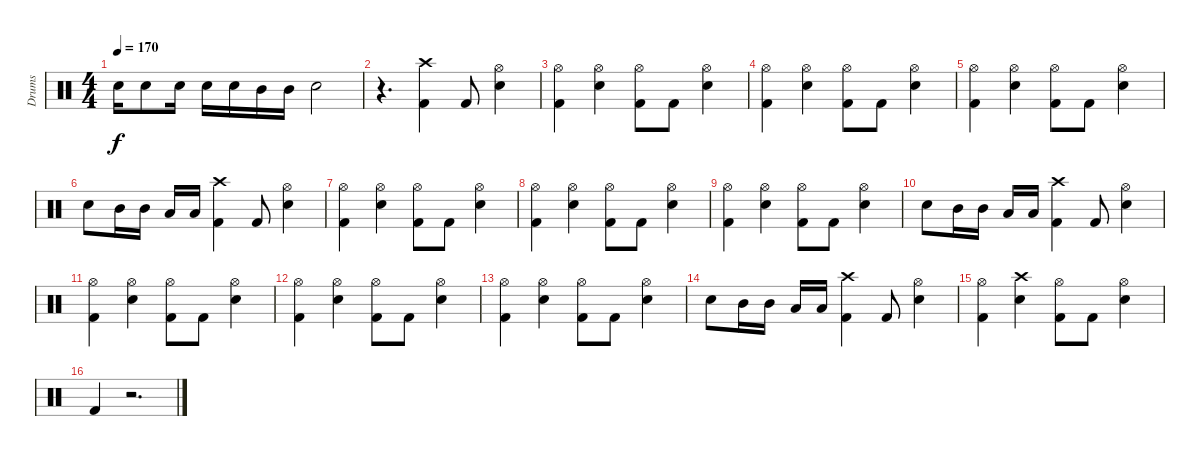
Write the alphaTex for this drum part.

\track ("Drums" "Drums") {instrument percussion}
\staff {score}
\articulation defaults
\ts (4 4)
\tempo 170
\clef neutral
\ks c "Snare (hit) 2".16{dy f} "Snare (hit) 2".8 "Snare (hit) 2".16 "Snare (hit) 2".16 "Snare (hit) 2".16 "Mid Tom (hit)".16 "Mid Tom (hit)".16 "Snare (hit) 2".2
|
r.4{d} ("Crash high (hit)" "Kick (hit) 2").4 "Kick (hit) 2".8 ("Hi-Hat (open)" "Snare (hit) 2").4 |
("Hi-Hat (open)" "Kick (hit) 2").4 ("Hi-Hat (open)" "Snare (hit) 2").4 ("Hi-Hat (open)" "Kick (hit) 2").8 "Kick (hit) 2".8 ("Hi-Hat (open)" "Snare (hit) 2").4 |
("Hi-Hat (open)" "Kick (hit) 2").4 ("Hi-Hat (open)" "Snare (hit) 2").4 ("Hi-Hat (open)" "Kick (hit) 2").8 "Kick (hit) 2".8 ("Hi-Hat (open)" "Snare (hit) 2").4 |
("Hi-Hat (open)" "Kick (hit) 2").4 ("Hi-Hat (open)" "Snare (hit) 2").4 ("Hi-Hat (open)" "Kick (hit) 2").8 "Kick (hit) 2".8 ("Hi-Hat (open)" "Snare (hit) 2").4 |
"Snare (hit) 2".8 "Mid Tom (hit)".16 "Mid Tom (hit)".16 "Low Tom (hit)".16 "Low Tom (hit)".16 ("Crash high (hit)" "Kick (hit) 2").4 "Kick (hit) 2".8 ("Hi-Hat (open)" "Snare (hit) 2").4 |
("Hi-Hat (open)" "Kick (hit) 2").4 ("Hi-Hat (open)" "Snare (hit) 2").4 ("Hi-Hat (open)" "Kick (hit) 2").8 "Kick (hit) 2".8 ("Hi-Hat (open)" "Snare (hit) 2").4 |
("Hi-Hat (open)" "Kick (hit) 2").4 ("Hi-Hat (open)" "Snare (hit) 2").4 ("Hi-Hat (open)" "Kick (hit) 2").8 "Kick (hit) 2".8 ("Hi-Hat (open)" "Snare (hit) 2").4 |
("Hi-Hat (open)" "Kick (hit) 2").4 ("Hi-Hat (open)" "Snare (hit) 2").4 ("Hi-Hat (open)" "Kick (hit) 2").8 "Kick (hit) 2".8 ("Hi-Hat (open)" "Snare (hit) 2").4 |
"Snare (hit) 2".8 "Mid Tom (hit)".16 "Mid Tom (hit)".16 "Low Tom (hit)".16 "Low Tom (hit)".16 ("Crash high (hit)" "Kick (hit) 2").4 "Kick (hit) 2".8 ("Hi-Hat (open)" "Snare (hit) 2").4 |
("Hi-Hat (open)" "Kick (hit) 2").4 ("Hi-Hat (open)" "Snare (hit) 2").4 ("Hi-Hat (open)" "Kick (hit) 2").8 "Kick (hit) 2".8 ("Hi-Hat (open)" "Snare (hit) 2").4 |
("Hi-Hat (open)" "Kick (hit) 2").4 ("Hi-Hat (open)" "Snare (hit) 2").4 ("Hi-Hat (open)" "Kick (hit) 2").8 "Kick (hit) 2".8 ("Hi-Hat (open)" "Snare (hit) 2").4 |
("Hi-Hat (open)" "Kick (hit) 2").4 ("Hi-Hat (open)" "Snare (hit) 2").4 ("Hi-Hat (open)" "Kick (hit) 2").8 "Kick (hit) 2".8 ("Hi-Hat (open)" "Snare (hit) 2").4 |
"Snare (hit) 2".8 "Mid Tom (hit)".16 "Mid Tom (hit)".16 "Low Tom (hit)".16 "Low Tom (hit)".16 ("Crash high (hit)" "Kick (hit) 2").4 "Kick (hit) 2".8 ("Hi-Hat (open)" "Snare (hit) 2").4 |
("Hi-Hat (open)" "Kick (hit) 2").4 ("Crash high (hit)" "Snare (hit) 2").4 ("Hi-Hat (open)" "Kick (hit) 2").8 "Kick (hit) 2".8 ("Hi-Hat (open)" "Snare (hit) 2").4 |
"Kick (hit) 2".4 r.2{d}
